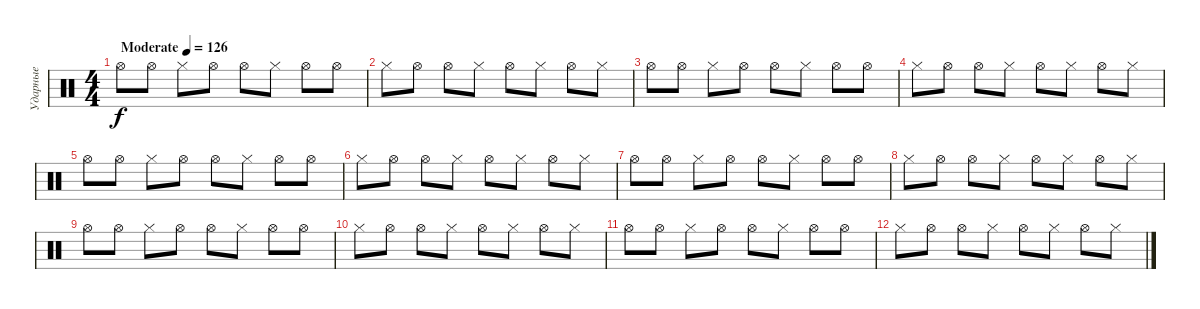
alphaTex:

\track ("Ударные" "Ударные") {instrument percussion}
\staff {score}
\articulation defaults
\ts (4 4)
\tempo (126 "Moderate")
\tempo 140
\tempo (126 "Moderate")
\clef neutral
\ks c "Hi-Hat (open)".8{dy f} "Hi-Hat (open)".8 "Hi-Hat (closed)".8 "Hi-Hat (open)".8 "Hi-Hat (open)".8 "Hi-Hat (closed)".8 "Hi-Hat (open)".8 "Hi-Hat (open)".8
|
"Hi-Hat (closed)".8 "Hi-Hat (open)".8 "Hi-Hat (open)".8 "Hi-Hat (closed)".8 "Hi-Hat (open)".8 "Hi-Hat (closed)".8 "Hi-Hat (open)".8 "Hi-Hat (closed)".8 |
"Hi-Hat (open)".8 "Hi-Hat (open)".8 "Hi-Hat (closed)".8 "Hi-Hat (open)".8 "Hi-Hat (open)".8 "Hi-Hat (closed)".8 "Hi-Hat (open)".8 "Hi-Hat (open)".8 |
"Hi-Hat (closed)".8 "Hi-Hat (open)".8 "Hi-Hat (open)".8 "Hi-Hat (closed)".8 "Hi-Hat (open)".8 "Hi-Hat (closed)".8 "Hi-Hat (open)".8 "Hi-Hat (closed)".8 |
"Hi-Hat (open)".8 "Hi-Hat (open)".8 "Hi-Hat (closed)".8 "Hi-Hat (open)".8 "Hi-Hat (open)".8 "Hi-Hat (closed)".8 "Hi-Hat (open)".8 "Hi-Hat (open)".8 |
"Hi-Hat (closed)".8 "Hi-Hat (open)".8 "Hi-Hat (open)".8 "Hi-Hat (closed)".8 "Hi-Hat (open)".8 "Hi-Hat (closed)".8 "Hi-Hat (open)".8 "Hi-Hat (closed)".8 |
"Hi-Hat (open)".8 "Hi-Hat (open)".8 "Hi-Hat (closed)".8 "Hi-Hat (open)".8 "Hi-Hat (open)".8 "Hi-Hat (closed)".8 "Hi-Hat (open)".8 "Hi-Hat (open)".8 |
"Hi-Hat (closed)".8 "Hi-Hat (open)".8 "Hi-Hat (open)".8 "Hi-Hat (closed)".8 "Hi-Hat (open)".8 "Hi-Hat (closed)".8 "Hi-Hat (open)".8 "Hi-Hat (closed)".8 |
"Hi-Hat (open)".8 "Hi-Hat (open)".8 "Hi-Hat (closed)".8 "Hi-Hat (open)".8 "Hi-Hat (open)".8 "Hi-Hat (closed)".8 "Hi-Hat (open)".8 "Hi-Hat (open)".8 |
"Hi-Hat (closed)".8 "Hi-Hat (open)".8 "Hi-Hat (open)".8 "Hi-Hat (closed)".8 "Hi-Hat (open)".8 "Hi-Hat (closed)".8 "Hi-Hat (open)".8 "Hi-Hat (closed)".8 |
"Hi-Hat (open)".8 "Hi-Hat (open)".8 "Hi-Hat (closed)".8 "Hi-Hat (open)".8 "Hi-Hat (open)".8 "Hi-Hat (closed)".8 "Hi-Hat (open)".8 "Hi-Hat (open)".8 |
"Hi-Hat (closed)".8 "Hi-Hat (open)".8 "Hi-Hat (open)".8 "Hi-Hat (closed)".8 "Hi-Hat (open)".8 "Hi-Hat (closed)".8 "Hi-Hat (open)".8 "Hi-Hat (closed)".8
